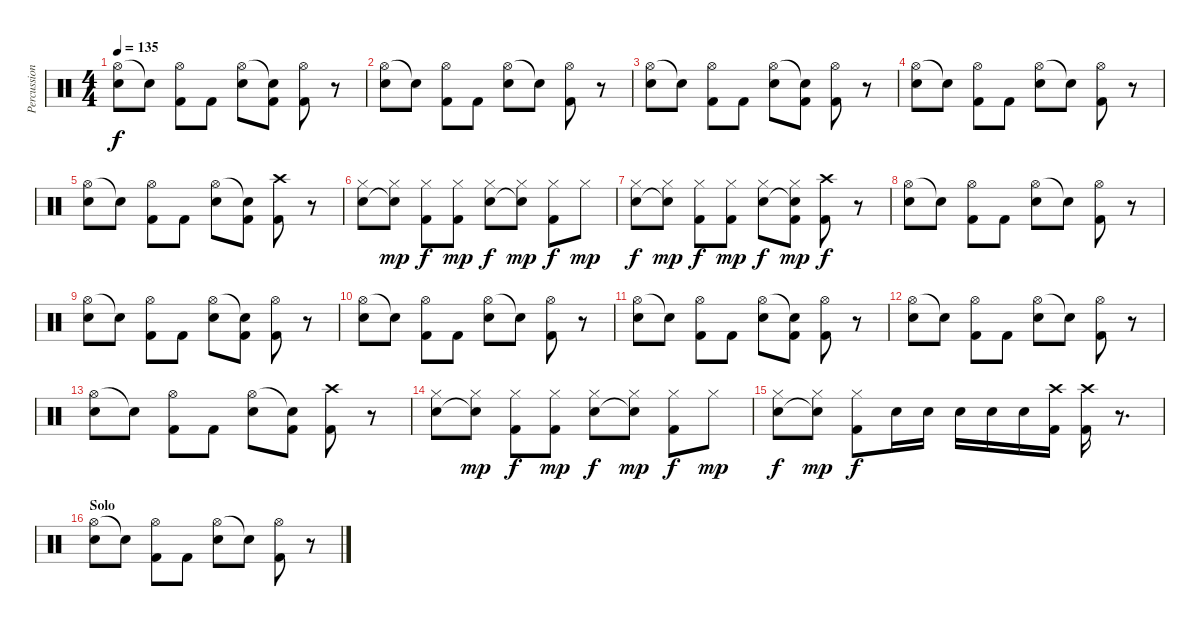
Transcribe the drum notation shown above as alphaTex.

\track ("Percussion" "Percussion") {instrument percussion}
\staff {score}
\articulation defaults
\ts (4 4)
\tempo 135
\clef neutral
\ks c
("Hi-Hat (open)" "Electric Snare (hit)").8{dy f} "Electric Snare (hit)"{t}.8 ("Hi-Hat (open)" "Kick (hit) 2").8 "Kick (hit) 2".8 ("Hi-Hat (open)" "Electric Snare (hit)").8 ("Electric Snare (hit)"{t} "Kick (hit) 2").8 ("Hi-Hat (open)" "Kick (hit) 2").8 r.8 |
("Hi-Hat (open)" "Electric Snare (hit)").8 "Electric Snare (hit)"{t}.8 ("Hi-Hat (open)" "Kick (hit) 2").8 "Kick (hit) 2".8 ("Hi-Hat (open)" "Electric Snare (hit)").8 "Electric Snare (hit)"{t}.8 ("Hi-Hat (open)" "Kick (hit) 2").8 r.8 |
("Hi-Hat (open)" "Electric Snare (hit)").8 "Electric Snare (hit)"{t}.8 ("Hi-Hat (open)" "Kick (hit) 2").8 "Kick (hit) 2".8 ("Hi-Hat (open)" "Electric Snare (hit)").8 ("Electric Snare (hit)"{t} "Kick (hit) 2").8 ("Hi-Hat (open)" "Kick (hit) 2").8 r.8 |
("Hi-Hat (open)" "Electric Snare (hit)").8 "Electric Snare (hit)"{t}.8 ("Hi-Hat (open)" "Kick (hit) 2").8 "Kick (hit) 2".8 ("Hi-Hat (open)" "Electric Snare (hit)").8 "Electric Snare (hit)"{t}.8 ("Hi-Hat (open)" "Kick (hit) 2").8 r.8 |
("Hi-Hat (open)" "Electric Snare (hit)").8 "Electric Snare (hit)"{t}.8 ("Hi-Hat (open)" "Kick (hit) 2").8 "Kick (hit) 2".8 ("Hi-Hat (open)" "Electric Snare (hit)").8 ("Electric Snare (hit)"{t} "Kick (hit) 2").8 ("Crash high (hit)" "Kick (hit) 2").8 r.8 |
("Hi-Hat (closed)" "Electric Snare (hit)").8 ("Hi-Hat (closed)" "Electric Snare (hit)"{t}).8{dy mp} ("Hi-Hat (closed)" "Kick (hit) 2").8{dy f} ("Hi-Hat (closed)" "Kick (hit) 2").8{dy mp} ("Hi-Hat (closed)" "Electric Snare (hit)").8{dy f} ("Hi-Hat (closed)" "Electric Snare (hit)"{t}).8{dy mp} ("Hi-Hat (closed)" "Kick (hit) 2").8{dy f} "Hi-Hat (closed)".8{dy mp} |
("Hi-Hat (closed)" "Electric Snare (hit)").8{dy f} ("Hi-Hat (closed)" "Electric Snare (hit)"{t}).8{dy mp} ("Hi-Hat (closed)" "Kick (hit) 2").8{dy f} ("Hi-Hat (closed)" "Kick (hit) 2").8{dy mp} ("Hi-Hat (closed)" "Electric Snare (hit)").8{dy f} ("Hi-Hat (closed)" "Electric Snare (hit)"{t} "Kick (hit) 2").8{dy mp} ("Crash high (hit)" "Kick (hit) 2").8{dy f} r.8 |
("Hi-Hat (open)" "Electric Snare (hit)").8 "Electric Snare (hit)"{t}.8 ("Hi-Hat (open)" "Kick (hit) 2").8 "Kick (hit) 2".8 ("Hi-Hat (open)" "Electric Snare (hit)").8 "Electric Snare (hit)"{t}.8 ("Hi-Hat (open)" "Kick (hit) 2").8 r.8 |
("Hi-Hat (open)" "Electric Snare (hit)").8 "Electric Snare (hit)"{t}.8 ("Hi-Hat (open)" "Kick (hit) 2").8 "Kick (hit) 2".8 ("Hi-Hat (open)" "Electric Snare (hit)").8 ("Electric Snare (hit)"{t} "Kick (hit) 2").8 ("Hi-Hat (open)" "Kick (hit) 2").8 r.8 |
("Hi-Hat (open)" "Electric Snare (hit)").8 "Electric Snare (hit)"{t}.8 ("Hi-Hat (open)" "Kick (hit) 2").8 "Kick (hit) 2".8 ("Hi-Hat (open)" "Electric Snare (hit)").8 "Electric Snare (hit)"{t}.8 ("Hi-Hat (open)" "Kick (hit) 2").8 r.8 |
("Hi-Hat (open)" "Electric Snare (hit)").8 "Electric Snare (hit)"{t}.8 ("Hi-Hat (open)" "Kick (hit) 2").8 "Kick (hit) 2".8 ("Hi-Hat (open)" "Electric Snare (hit)").8 ("Electric Snare (hit)"{t} "Kick (hit) 2").8 ("Hi-Hat (open)" "Kick (hit) 2").8 r.8 |
("Hi-Hat (open)" "Electric Snare (hit)").8 "Electric Snare (hit)"{t}.8 ("Hi-Hat (open)" "Kick (hit) 2").8 "Kick (hit) 2".8 ("Hi-Hat (open)" "Electric Snare (hit)").8 "Electric Snare (hit)"{t}.8 ("Hi-Hat (open)" "Kick (hit) 2").8 r.8 |
("Hi-Hat (open)" "Electric Snare (hit)").8 "Electric Snare (hit)"{t}.8 ("Hi-Hat (open)" "Kick (hit) 2").8 "Kick (hit) 2".8 ("Hi-Hat (open)" "Electric Snare (hit)").8 ("Electric Snare (hit)"{t} "Kick (hit) 2").8 ("Crash high (hit)" "Kick (hit) 2").8 r.8 |
("Hi-Hat (closed)" "Electric Snare (hit)").8 ("Hi-Hat (closed)" "Electric Snare (hit)"{t}).8{dy mp} ("Hi-Hat (closed)" "Kick (hit) 2").8{dy f} ("Hi-Hat (closed)" "Kick (hit) 2").8{dy mp} ("Hi-Hat (closed)" "Electric Snare (hit)").8{dy f} ("Hi-Hat (closed)" "Electric Snare (hit)"{t}).8{dy mp} ("Hi-Hat (closed)" "Kick (hit) 2").8{dy f} "Hi-Hat (closed)".8{dy mp} |
("Hi-Hat (closed)" "Electric Snare (hit)").8{dy f} ("Hi-Hat (closed)" "Electric Snare (hit)"{t}).8{dy mp} ("Hi-Hat (closed)" "Kick (hit) 2").8{dy f} "Electric Snare (hit)".16 "Electric Snare (hit)".16 "Electric Snare (hit)".16 "Electric Snare (hit)".16 "Electric Snare (hit)".16 ("Crash high (hit)" "Kick (hit) 2").16 ("Crash high (hit)" "Kick (hit) 2").16 r.8{d} |
\section ("" "Solo")
("Hi-Hat (open)" "Electric Snare (hit)").8 "Electric Snare (hit)"{t}.8 ("Hi-Hat (open)" "Kick (hit) 2").8 "Kick (hit) 2".8 ("Hi-Hat (open)" "Electric Snare (hit)").8 "Electric Snare (hit)"{t}.8 ("Hi-Hat (open)" "Kick (hit) 2").8 r.8
